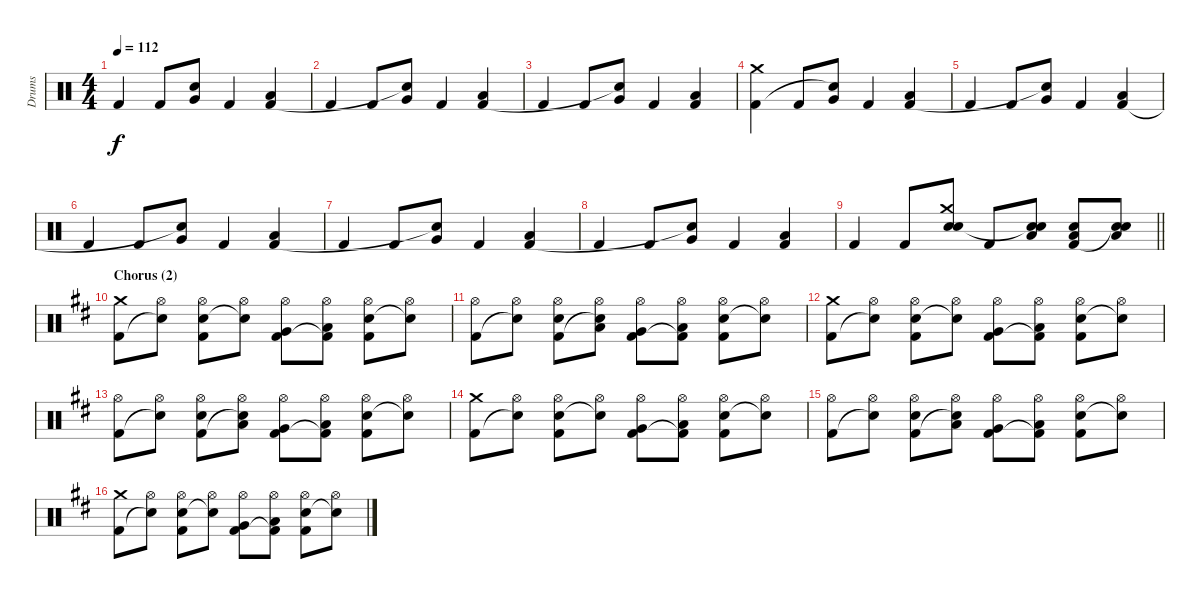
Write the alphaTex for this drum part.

\track ("Drums" "Drums") {instrument percussion}
\staff {score}
\articulation defaults
\ts (4 4)
\tempo 112
\clef neutral
\ks aminor "Kick (hit) 2".4{dy f} "Kick (hit) 2".8
("Very Low Tom (hit)" "Snare (hit)"{t}).8 "Kick (hit) 2".4 ("Low Floor Tom (hit)" "Kick (hit) 2").4 |
"Kick (hit) 2".4 "Kick (hit) 2".8 ("Very Low Tom (hit)" "Snare (hit)"{t}).8 "Kick (hit) 2".4 ("Low Floor Tom (hit)" "Kick (hit) 2").4 |
"Kick (hit) 2".4 "Kick (hit) 2".8 ("Very Low Tom (hit)" "Snare (hit)"{t}).8 "Kick (hit) 2".4 ("Low Floor Tom (hit)" "Kick (hit) 2").4 |
("Crash medium (hit)" "Kick (hit) 2").4 "Kick (hit) 2".8 ("Very Low Tom (hit)" "Snare (hit)"{t}).8 "Kick (hit) 2".4 ("Low Floor Tom (hit)" "Kick (hit) 2").4 |
"Kick (hit) 2".4 "Kick (hit) 2".8 ("Very Low Tom (hit)" "Snare (hit)"{t}).8 "Kick (hit) 2".4 ("Low Floor Tom (hit)" "Kick (hit) 2").4 |
"Kick (hit) 2".4 "Kick (hit) 2".8 ("Very Low Tom (hit)" "Snare (hit)"{t}).8 "Kick (hit) 2".4 ("Low Floor Tom (hit)" "Kick (hit) 2").4 |
"Kick (hit) 2".4 "Kick (hit) 2".8 ("Very Low Tom (hit)" "Snare (hit)"{t}).8 "Kick (hit) 2".4 ("Low Floor Tom (hit)" "Kick (hit) 2").4 |
"Kick (hit) 2".4 "Kick (hit) 2".8 ("Very Low Tom (hit)" "Snare (hit)"{t}).8 "Kick (hit) 2".4 ("Low Floor Tom (hit)" "Kick (hit) 2").4 |
\barLineRight lightlight "Kick (hit) 2".4 "Kick (hit) 2".8
("Crash medium (hit)" "Electric Snare (hit)" "Snare (hit)").8 "Kick (hit) 2".8 ("Electric Snare (hit)" "Low Floor Tom (hit)" "Snare (hit)"{t}).8 ("Electric Snare (hit)" "Low Floor Tom (hit)" "Kick (hit) 2").8 ("Electric Snare (hit)" "Low Floor Tom (hit)" "Snare (hit)"{t}).8 |
\section ("" "Chorus (2)")
\ks bminor
("Crash medium (hit)" "Kick (hit) 2").8 ("Hi-Hat (open)" "Snare (hit)"{t}).8 ("Hi-Hat (open)" "Electric Snare (hit)" "Kick (hit) 2").8 ("Hi-Hat (open)" "Snare (hit)"{t}).8 ("Hi-Hat (open)" "Very Low Tom (hit)" "Kick (hit) 2").8 ("Hi-Hat (open)" "Low Floor Tom (hit)" "Kick (hit) 2"{t}).8 ("Hi-Hat (open)" "Electric Snare (hit)" "Kick (hit) 2").8 ("Hi-Hat (open)" "Snare (hit)"{t}).8 |
("Hi-Hat (open)" "Kick (hit) 2").8 ("Hi-Hat (open)" "Snare (hit)"{t}).8 ("Hi-Hat (open)" "Electric Snare (hit)" "Kick (hit) 2").8 ("Hi-Hat (open)" "Low Tom (hit)" "Snare (hit)"{t}).8 ("Hi-Hat (open)" "Very Low Tom (hit)" "Kick (hit) 2").8 ("Hi-Hat (open)" "Low Floor Tom (hit)" "Kick (hit) 2"{t}).8 ("Hi-Hat (open)" "Electric Snare (hit)" "Kick (hit) 2").8 ("Hi-Hat (open)" "Snare (hit)"{t}).8 |
("Crash medium (hit)" "Kick (hit) 2").8 ("Hi-Hat (open)" "Snare (hit)"{t}).8 ("Hi-Hat (open)" "Electric Snare (hit)" "Kick (hit) 2").8 ("Hi-Hat (open)" "Snare (hit)"{t}).8 ("Hi-Hat (open)" "Very Low Tom (hit)" "Kick (hit) 2").8 ("Hi-Hat (open)" "Low Floor Tom (hit)" "Kick (hit) 2"{t}).8 ("Hi-Hat (open)" "Electric Snare (hit)" "Kick (hit) 2").8 ("Hi-Hat (open)" "Snare (hit)"{t}).8 |
("Hi-Hat (open)" "Kick (hit) 2").8 ("Hi-Hat (open)" "Snare (hit)"{t}).8 ("Hi-Hat (open)" "Electric Snare (hit)" "Kick (hit) 2").8 ("Hi-Hat (open)" "Low Tom (hit)" "Snare (hit)"{t}).8 ("Hi-Hat (open)" "Very Low Tom (hit)" "Kick (hit) 2").8 ("Hi-Hat (open)" "Low Floor Tom (hit)" "Kick (hit) 2"{t}).8 ("Hi-Hat (open)" "Electric Snare (hit)" "Kick (hit) 2").8 ("Hi-Hat (open)" "Snare (hit)"{t}).8 |
("Crash medium (hit)" "Kick (hit) 2").8 ("Hi-Hat (open)" "Snare (hit)"{t}).8 ("Hi-Hat (open)" "Electric Snare (hit)" "Kick (hit) 2").8 ("Hi-Hat (open)" "Snare (hit)"{t}).8 ("Hi-Hat (open)" "Very Low Tom (hit)" "Kick (hit) 2").8 ("Hi-Hat (open)" "Low Floor Tom (hit)" "Kick (hit) 2"{t}).8 ("Hi-Hat (open)" "Electric Snare (hit)" "Kick (hit) 2").8 ("Hi-Hat (open)" "Snare (hit)"{t}).8 |
("Hi-Hat (open)" "Kick (hit) 2").8 ("Hi-Hat (open)" "Snare (hit)"{t}).8 ("Hi-Hat (open)" "Electric Snare (hit)" "Kick (hit) 2").8 ("Hi-Hat (open)" "Low Tom (hit)" "Snare (hit)"{t}).8 ("Hi-Hat (open)" "Very Low Tom (hit)" "Kick (hit) 2").8 ("Hi-Hat (open)" "Low Floor Tom (hit)" "Kick (hit) 2"{t}).8 ("Hi-Hat (open)" "Electric Snare (hit)" "Kick (hit) 2").8 ("Hi-Hat (open)" "Snare (hit)"{t}).8 |
("Crash medium (hit)" "Kick (hit) 2").8 ("Hi-Hat (open)" "Snare (hit)"{t}).8 ("Hi-Hat (open)" "Electric Snare (hit)" "Kick (hit) 2").8 ("Hi-Hat (open)" "Snare (hit)"{t}).8 ("Hi-Hat (open)" "Very Low Tom (hit)" "Kick (hit) 2").8 ("Hi-Hat (open)" "Low Floor Tom (hit)" "Kick (hit) 2"{t}).8 ("Hi-Hat (open)" "Electric Snare (hit)" "Kick (hit) 2").8 ("Hi-Hat (open)" "Snare (hit)"{t}).8
